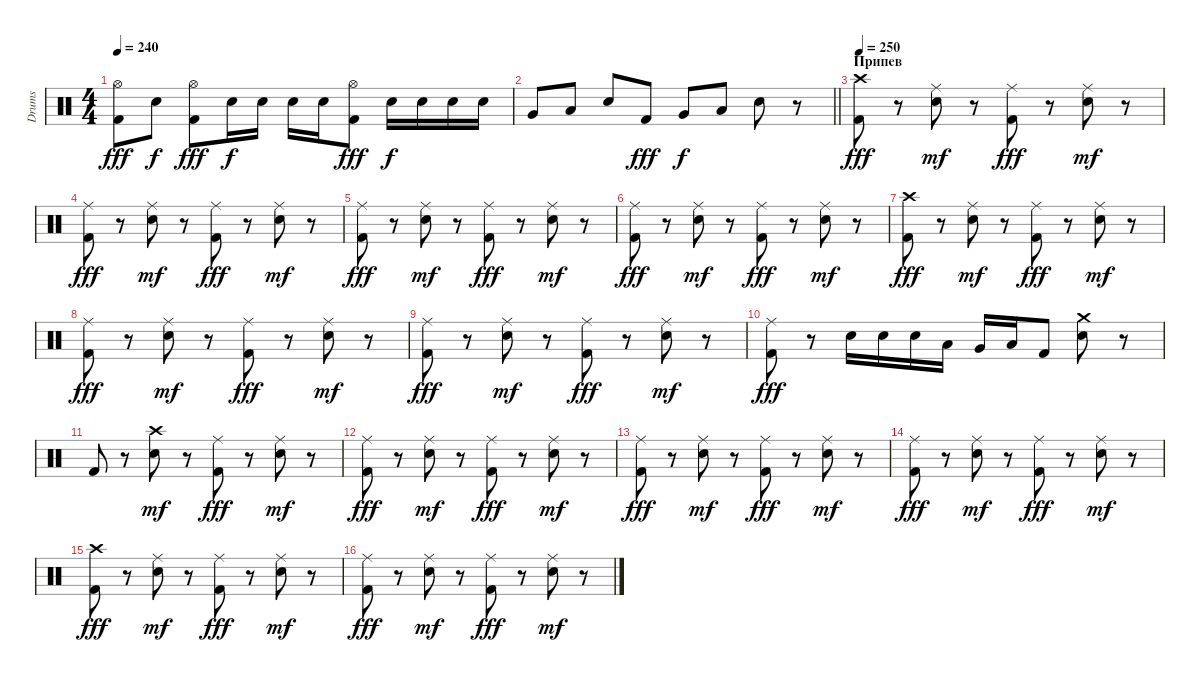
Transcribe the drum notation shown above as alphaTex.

\track ("Drums" "Drums") {instrument percussion}
\staff {score}
\articulation defaults
\ts (4 4)
\tempo 240
\clef neutral
\ks c
("Hi-Hat (open)" "Kick (hit) 2").8{dy fff} "Electric Snare (hit)".8{dy f} ("Hi-Hat (open)" "Kick (hit) 2").8{dy fff} "Electric Snare (hit)".16{dy f} "Electric Snare (hit)".16 "Electric Snare (hit)".16 "Electric Snare (hit)".16 ("Hi-Hat (open)" "Kick (hit) 2").8{dy fff} "Electric Snare (hit)".16{dy f} "Electric Snare (hit)".16 "Electric Snare (hit)".16 "Electric Snare (hit)".16 |
\barLineRight lightlight "Very Low Tom (hit)".8 "Low Floor Tom (hit)".8 "Electric Snare (hit)".8 "Kick (hit) 2".8{dy fff} "Very Low Tom (hit)".8{dy f} "Low Floor Tom (hit)".8 "Electric Snare (hit)".8
r.8 |
\section ("" "Припев")
\tempo 250
("Crash high (hit)" "Kick (hit) 2").8{dy fff} r.8 ("Ride (middle)" "Electric Snare (hit)").8{dy mf} r.8 ("Ride (middle)" "Kick (hit) 2").8{dy fff} r.8 ("Ride (middle)" "Electric Snare (hit)").8{dy mf} r.8 |
("Ride (middle)" "Kick (hit) 2").8{dy fff} r.8 ("Ride (middle)" "Electric Snare (hit)").8{dy mf} r.8 ("Ride (middle)" "Kick (hit) 2").8{dy fff} r.8 ("Ride (middle)" "Electric Snare (hit)").8{dy mf} r.8 |
("Ride (middle)" "Kick (hit) 2").8{dy fff} r.8 ("Ride (middle)" "Electric Snare (hit)").8{dy mf} r.8 ("Ride (middle)" "Kick (hit) 2").8{dy fff} r.8 ("Ride (middle)" "Electric Snare (hit)").8{dy mf} r.8 |
("Ride (middle)" "Kick (hit) 2").8{dy fff} r.8 ("Ride (middle)" "Electric Snare (hit)").8{dy mf} r.8 ("Ride (middle)" "Kick (hit) 2").8{dy fff} r.8 ("Ride (middle)" "Electric Snare (hit)").8{dy mf} r.8 |
("Crash high (hit)" "Kick (hit) 2").8{dy fff} r.8 ("Ride (middle)" "Electric Snare (hit)").8{dy mf} r.8 ("Ride (middle)" "Kick (hit) 2").8{dy fff} r.8 ("Ride (middle)" "Electric Snare (hit)").8{dy mf} r.8 |
("Ride (middle)" "Kick (hit) 2").8{dy fff} r.8 ("Ride (middle)" "Electric Snare (hit)").8{dy mf} r.8 ("Ride (middle)" "Kick (hit) 2").8{dy fff} r.8 ("Ride (middle)" "Electric Snare (hit)").8{dy mf} r.8 |
("Ride (middle)" "Kick (hit) 2").8{dy fff} r.8 ("Ride (middle)" "Electric Snare (hit)").8{dy mf} r.8 ("Ride (middle)" "Kick (hit) 2").8{dy fff} r.8 ("Ride (middle)" "Electric Snare (hit)").8{dy mf} r.8 |
("Ride (middle)" "Kick (hit) 2").8{dy fff} r.8 "Electric Snare (hit)".16 "Electric Snare (hit)".16 "Electric Snare (hit)".16 "Low Tom (hit)".16 "Very Low Tom (hit)".16 "Low Floor Tom (hit)".16 "Kick (hit) 2".8 ("Crash medium (hit)" "Electric Snare (hit)").8 r.8 |
"Kick (hit) 2".8 r.8 ("Crash high (hit)" "Electric Snare (hit)").8{dy mf} r.8 ("Ride (middle)" "Kick (hit) 2").8{dy fff} r.8 ("Ride (middle)" "Electric Snare (hit)").8{dy mf} r.8 |
("Ride (middle)" "Kick (hit) 2").8{dy fff} r.8 ("Ride (middle)" "Electric Snare (hit)").8{dy mf} r.8 ("Ride (middle)" "Kick (hit) 2").8{dy fff} r.8 ("Ride (middle)" "Electric Snare (hit)").8{dy mf} r.8 |
("Ride (middle)" "Kick (hit) 2").8{dy fff} r.8 ("Ride (middle)" "Electric Snare (hit)").8{dy mf} r.8 ("Ride (middle)" "Kick (hit) 2").8{dy fff} r.8 ("Ride (middle)" "Electric Snare (hit)").8{dy mf} r.8 |
("Ride (middle)" "Kick (hit) 2").8{dy fff} r.8 ("Ride (middle)" "Electric Snare (hit)").8{dy mf} r.8 ("Ride (middle)" "Kick (hit) 2").8{dy fff} r.8 ("Ride (middle)" "Electric Snare (hit)").8{dy mf} r.8 |
("Crash high (hit)" "Kick (hit) 2").8{dy fff} r.8 ("Ride (middle)" "Electric Snare (hit)").8{dy mf} r.8 ("Ride (middle)" "Kick (hit) 2").8{dy fff} r.8 ("Ride (middle)" "Electric Snare (hit)").8{dy mf} r.8 |
("Ride (middle)" "Kick (hit) 2").8{dy fff} r.8 ("Ride (middle)" "Electric Snare (hit)").8{dy mf} r.8 ("Ride (middle)" "Kick (hit) 2").8{dy fff} r.8 ("Ride (middle)" "Electric Snare (hit)").8{dy mf} r.8
